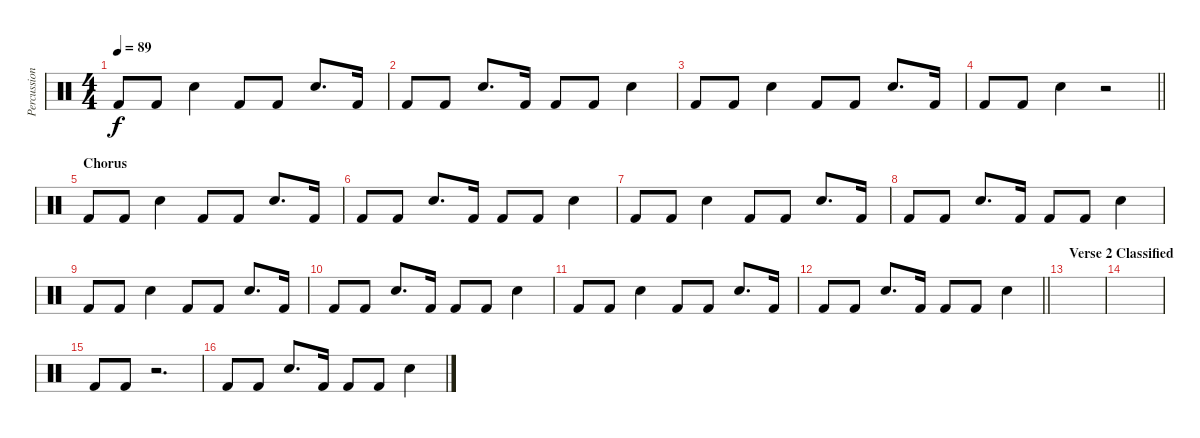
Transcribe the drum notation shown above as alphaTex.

\track ("Percussion" "Percussion") {instrument percussion}
\staff {score}
\articulation defaults
\ts (4 4)
\tempo 89
\clef neutral
\ks c "Kick (hit) 2".8{dy f} "Kick (hit) 2".8 "Snare (hit) 2".4 "Kick (hit) 2".8 "Kick (hit) 2".8 "Snare (hit) 2".8{d} "Kick (hit) 2".16
|
"Kick (hit) 2".8 "Kick (hit) 2".8 "Snare (hit) 2".8{d} "Kick (hit) 2".16 "Kick (hit) 2".8 "Kick (hit) 2".8 "Snare (hit) 2".4 |
"Kick (hit) 2".8 "Kick (hit) 2".8 "Snare (hit) 2".4 "Kick (hit) 2".8 "Kick (hit) 2".8 "Snare (hit) 2".8{d} "Kick (hit) 2".16 |
\barLineRight lightlight "Kick (hit) 2".8 "Kick (hit) 2".8 "Snare (hit) 2".4
r.2 |
\section ("" "Chorus")
"Kick (hit) 2".8 "Kick (hit) 2".8 "Snare (hit) 2".4 "Kick (hit) 2".8 "Kick (hit) 2".8 "Snare (hit) 2".8{d} "Kick (hit) 2".16 |
"Kick (hit) 2".8 "Kick (hit) 2".8 "Snare (hit) 2".8{d} "Kick (hit) 2".16 "Kick (hit) 2".8 "Kick (hit) 2".8 "Snare (hit) 2".4 |
"Kick (hit) 2".8 "Kick (hit) 2".8 "Snare (hit) 2".4 "Kick (hit) 2".8 "Kick (hit) 2".8 "Snare (hit) 2".8{d} "Kick (hit) 2".16 |
"Kick (hit) 2".8 "Kick (hit) 2".8 "Snare (hit) 2".8{d} "Kick (hit) 2".16 "Kick (hit) 2".8 "Kick (hit) 2".8 "Snare (hit) 2".4 |
"Kick (hit) 2".8 "Kick (hit) 2".8 "Snare (hit) 2".4 "Kick (hit) 2".8 "Kick (hit) 2".8 "Snare (hit) 2".8{d} "Kick (hit) 2".16 |
"Kick (hit) 2".8 "Kick (hit) 2".8 "Snare (hit) 2".8{d} "Kick (hit) 2".16 "Kick (hit) 2".8 "Kick (hit) 2".8 "Snare (hit) 2".4 |
"Kick (hit) 2".8 "Kick (hit) 2".8 "Snare (hit) 2".4 "Kick (hit) 2".8 "Kick (hit) 2".8 "Snare (hit) 2".8{d} "Kick (hit) 2".16 |
\barLineRight lightlight "Kick (hit) 2".8 "Kick (hit) 2".8 "Snare (hit) 2".8{d} "Kick (hit) 2".16 "Kick (hit) 2".8 "Kick (hit) 2".8 "Snare (hit) 2".4
|
\section ("" "Verse 2 Classified")
|
|
"Kick (hit) 2".8 "Kick (hit) 2".8 r.2{d} |
"Kick (hit) 2".8 "Kick (hit) 2".8 "Snare (hit) 2".8{d} "Kick (hit) 2".16 "Kick (hit) 2".8 "Kick (hit) 2".8 "Snare (hit) 2".4
